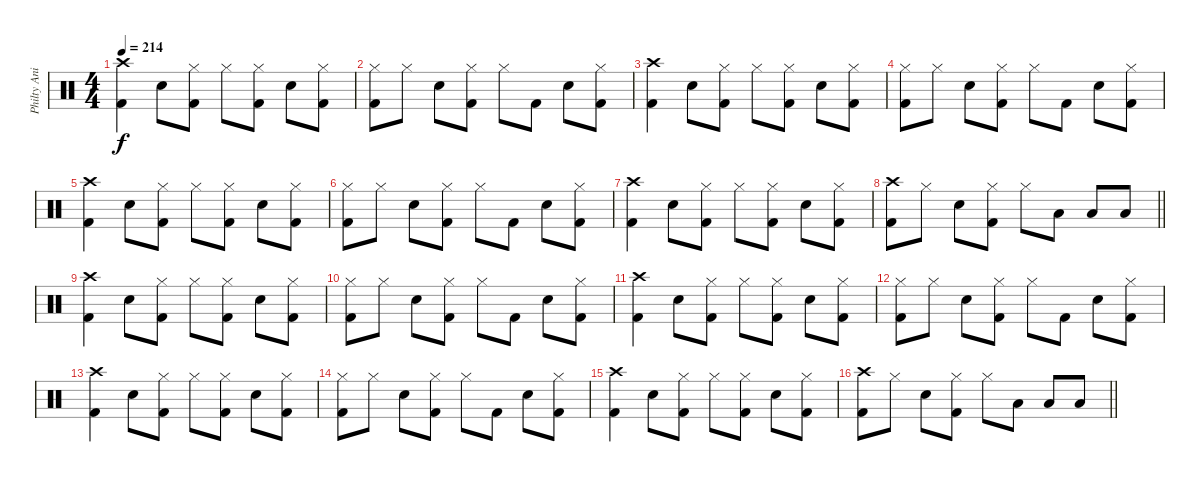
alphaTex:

\track ("Philty Animal" "Philty Ani") {instrument percussion}
\staff {score}
\articulation defaults
\ts (4 4)
\tempo 214
\clef neutral
\ks c
("Kick (hit) 2" "Crash high (hit)").4{dy f} "Snare (hit) 2".8 ("Kick (hit) 2" "Hi-Hat (closed)").8 "Hi-Hat (closed)".8 ("Kick (hit) 2" "Hi-Hat (closed)").8 "Snare (hit) 2".8 ("Kick (hit) 2" "Hi-Hat (closed)").8 |
("Kick (hit) 2" "Hi-Hat (closed)").8 "Hi-Hat (closed)".8 "Snare (hit) 2".8 ("Hi-Hat (closed)" "Kick (hit) 2").8 "Hi-Hat (closed)".8 "Kick (hit) 2".8 "Snare (hit) 2".8 ("Kick (hit) 2" "Hi-Hat (closed)").8 |
("Kick (hit) 2" "Crash high (hit)").4 "Snare (hit) 2".8 ("Kick (hit) 2" "Hi-Hat (closed)").8 "Hi-Hat (closed)".8 ("Kick (hit) 2" "Hi-Hat (closed)").8 "Snare (hit) 2".8 ("Kick (hit) 2" "Hi-Hat (closed)").8 |
("Kick (hit) 2" "Hi-Hat (closed)").8 "Hi-Hat (closed)".8 "Snare (hit) 2".8 ("Hi-Hat (closed)" "Kick (hit) 2").8 "Hi-Hat (closed)".8 "Kick (hit) 2".8 "Snare (hit) 2".8 ("Kick (hit) 2" "Hi-Hat (closed)").8 |
("Kick (hit) 2" "Crash high (hit)").4 "Snare (hit) 2".8 ("Kick (hit) 2" "Hi-Hat (closed)").8 "Hi-Hat (closed)".8 ("Kick (hit) 2" "Hi-Hat (closed)").8 "Snare (hit) 2".8 ("Kick (hit) 2" "Hi-Hat (closed)").8 |
("Kick (hit) 2" "Hi-Hat (closed)").8 "Hi-Hat (closed)".8 "Snare (hit) 2".8 ("Hi-Hat (closed)" "Kick (hit) 2").8 "Hi-Hat (closed)".8 "Kick (hit) 2".8 "Snare (hit) 2".8 ("Kick (hit) 2" "Hi-Hat (closed)").8 |
("Kick (hit) 2" "Crash high (hit)").4 "Snare (hit) 2".8 ("Kick (hit) 2" "Hi-Hat (closed)").8 "Hi-Hat (closed)".8 ("Kick (hit) 2" "Hi-Hat (closed)").8 "Snare (hit) 2".8 ("Kick (hit) 2" "Hi-Hat (closed)").8 |
\barLineRight lightlight
("Crash high (hit)" "Kick (hit) 2").8 "Hi-Hat (closed)".8 "Snare (hit) 2".8 ("Hi-Hat (closed)" "Kick (hit) 2").8 "Hi-Hat (closed)".8 "Low Tom (hit)".8 "Low Tom (hit)".8 "Low Tom (hit)".8 |
("Kick (hit) 2" "Crash high (hit)").4 "Snare (hit) 2".8 ("Kick (hit) 2" "Hi-Hat (closed)").8 "Hi-Hat (closed)".8 ("Kick (hit) 2" "Hi-Hat (closed)").8 "Snare (hit) 2".8 ("Kick (hit) 2" "Hi-Hat (closed)").8 |
("Kick (hit) 2" "Hi-Hat (closed)").8 "Hi-Hat (closed)".8 "Snare (hit) 2".8 ("Hi-Hat (closed)" "Kick (hit) 2").8 "Hi-Hat (closed)".8 "Kick (hit) 2".8 "Snare (hit) 2".8 ("Kick (hit) 2" "Hi-Hat (closed)").8 |
("Kick (hit) 2" "Crash high (hit)").4 "Snare (hit) 2".8 ("Kick (hit) 2" "Hi-Hat (closed)").8 "Hi-Hat (closed)".8 ("Kick (hit) 2" "Hi-Hat (closed)").8 "Snare (hit) 2".8 ("Kick (hit) 2" "Hi-Hat (closed)").8 |
("Kick (hit) 2" "Hi-Hat (closed)").8 "Hi-Hat (closed)".8 "Snare (hit) 2".8 ("Hi-Hat (closed)" "Kick (hit) 2").8 "Hi-Hat (closed)".8 "Kick (hit) 2".8 "Snare (hit) 2".8 ("Kick (hit) 2" "Hi-Hat (closed)").8 |
("Kick (hit) 2" "Crash high (hit)").4 "Snare (hit) 2".8 ("Kick (hit) 2" "Hi-Hat (closed)").8 "Hi-Hat (closed)".8 ("Kick (hit) 2" "Hi-Hat (closed)").8 "Snare (hit) 2".8 ("Kick (hit) 2" "Hi-Hat (closed)").8 |
("Kick (hit) 2" "Hi-Hat (closed)").8 "Hi-Hat (closed)".8 "Snare (hit) 2".8 ("Hi-Hat (closed)" "Kick (hit) 2").8 "Hi-Hat (closed)".8 "Kick (hit) 2".8 "Snare (hit) 2".8 ("Kick (hit) 2" "Hi-Hat (closed)").8 |
("Kick (hit) 2" "Crash high (hit)").4 "Snare (hit) 2".8 ("Kick (hit) 2" "Hi-Hat (closed)").8 "Hi-Hat (closed)".8 ("Kick (hit) 2" "Hi-Hat (closed)").8 "Snare (hit) 2".8 ("Kick (hit) 2" "Hi-Hat (closed)").8 |
\barLineRight lightlight
("Crash high (hit)" "Kick (hit) 2").8 "Hi-Hat (closed)".8 "Snare (hit) 2".8 ("Hi-Hat (closed)" "Kick (hit) 2").8 "Hi-Hat (closed)".8 "Low Tom (hit)".8 "Low Tom (hit)".8 "Low Tom (hit)".8
